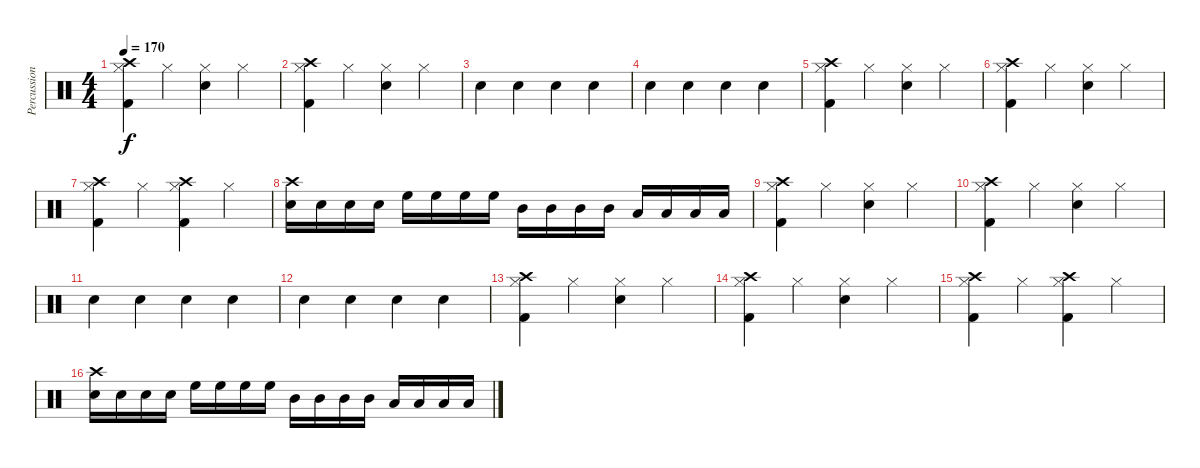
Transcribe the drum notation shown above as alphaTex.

\track ("Percussion" "Percussion") {instrument percussion}
\staff {score}
\articulation defaults
\ts (4 4)
\tempo 170
\clef neutral
\ks c
("Hi-Hat (closed)" "Kick (hit) 2" "Crash high (hit)").4{dy f} "Hi-Hat (closed)".4 ("Hi-Hat (closed)" "Electric Snare (hit)").4 "Hi-Hat (closed)".4 |
("Hi-Hat (closed)" "Kick (hit) 2" "Crash high (hit)").4 "Hi-Hat (closed)".4 ("Hi-Hat (closed)" "Electric Snare (hit)").4 "Hi-Hat (closed)".4 |
"Snare (hit) 2".4 "Snare (hit) 2".4 "Snare (hit) 2".4 "Electric Snare (hit)".4 |
"Snare (hit) 2".4 "Snare (hit) 2".4 "Snare (hit) 2".4 "Electric Snare (hit)".4 |
("Hi-Hat (closed)" "Kick (hit) 2" "Crash high (hit)").4 "Hi-Hat (closed)".4 ("Hi-Hat (closed)" "Electric Snare (hit)").4 "Hi-Hat (closed)".4 |
("Hi-Hat (closed)" "Kick (hit) 2" "Crash high (hit)").4 "Hi-Hat (closed)".4 ("Hi-Hat (closed)" "Electric Snare (hit)").4 "Hi-Hat (closed)".4 |
("Hi-Hat (closed)" "Kick (hit) 2" "Crash high (hit)").4 "Hi-Hat (closed)".4 ("Hi-Hat (closed)" "Kick (hit) 2" "Crash high (hit)").4 "Hi-Hat (closed)".4 |
("Electric Snare (hit)" "Crash high (hit)").16 "Electric Snare (hit)".16 "Electric Snare (hit)".16 "Electric Snare (hit)".16 "High Floor Tom (hit)".16 "High Floor Tom (hit)".16 "High Floor Tom (hit)".16 "High Floor Tom (hit)".16 "Mid Tom (hit)".16 "Mid Tom (hit)".16 "Mid Tom (hit)".16 "Mid Tom (hit)".16 "Low Tom (hit)".16 "Low Tom (hit)".16 "Low Tom (hit)".16 "Low Tom (hit)".16 |
("Hi-Hat (closed)" "Kick (hit) 2" "Crash high (hit)").4 "Hi-Hat (closed)".4 ("Hi-Hat (closed)" "Electric Snare (hit)").4 "Hi-Hat (closed)".4 |
("Hi-Hat (closed)" "Kick (hit) 2" "Crash high (hit)").4 "Hi-Hat (closed)".4 ("Hi-Hat (closed)" "Electric Snare (hit)").4 "Hi-Hat (closed)".4 |
"Snare (hit) 2".4 "Snare (hit) 2".4 "Snare (hit) 2".4 "Electric Snare (hit)".4 |
"Snare (hit) 2".4 "Snare (hit) 2".4 "Snare (hit) 2".4 "Electric Snare (hit)".4 |
("Hi-Hat (closed)" "Kick (hit) 2" "Crash high (hit)").4 "Hi-Hat (closed)".4 ("Hi-Hat (closed)" "Electric Snare (hit)").4 "Hi-Hat (closed)".4 |
("Hi-Hat (closed)" "Kick (hit) 2" "Crash high (hit)").4 "Hi-Hat (closed)".4 ("Hi-Hat (closed)" "Electric Snare (hit)").4 "Hi-Hat (closed)".4 |
("Hi-Hat (closed)" "Kick (hit) 2" "Crash high (hit)").4 "Hi-Hat (closed)".4 ("Hi-Hat (closed)" "Kick (hit) 2" "Crash high (hit)").4 "Hi-Hat (closed)".4 |
("Electric Snare (hit)" "Crash high (hit)").16 "Electric Snare (hit)".16 "Electric Snare (hit)".16 "Electric Snare (hit)".16 "High Floor Tom (hit)".16 "High Floor Tom (hit)".16 "High Floor Tom (hit)".16 "High Floor Tom (hit)".16 "Mid Tom (hit)".16 "Mid Tom (hit)".16 "Mid Tom (hit)".16 "Mid Tom (hit)".16 "Low Tom (hit)".16 "Low Tom (hit)".16 "Low Tom (hit)".16 "Low Tom (hit)".16
